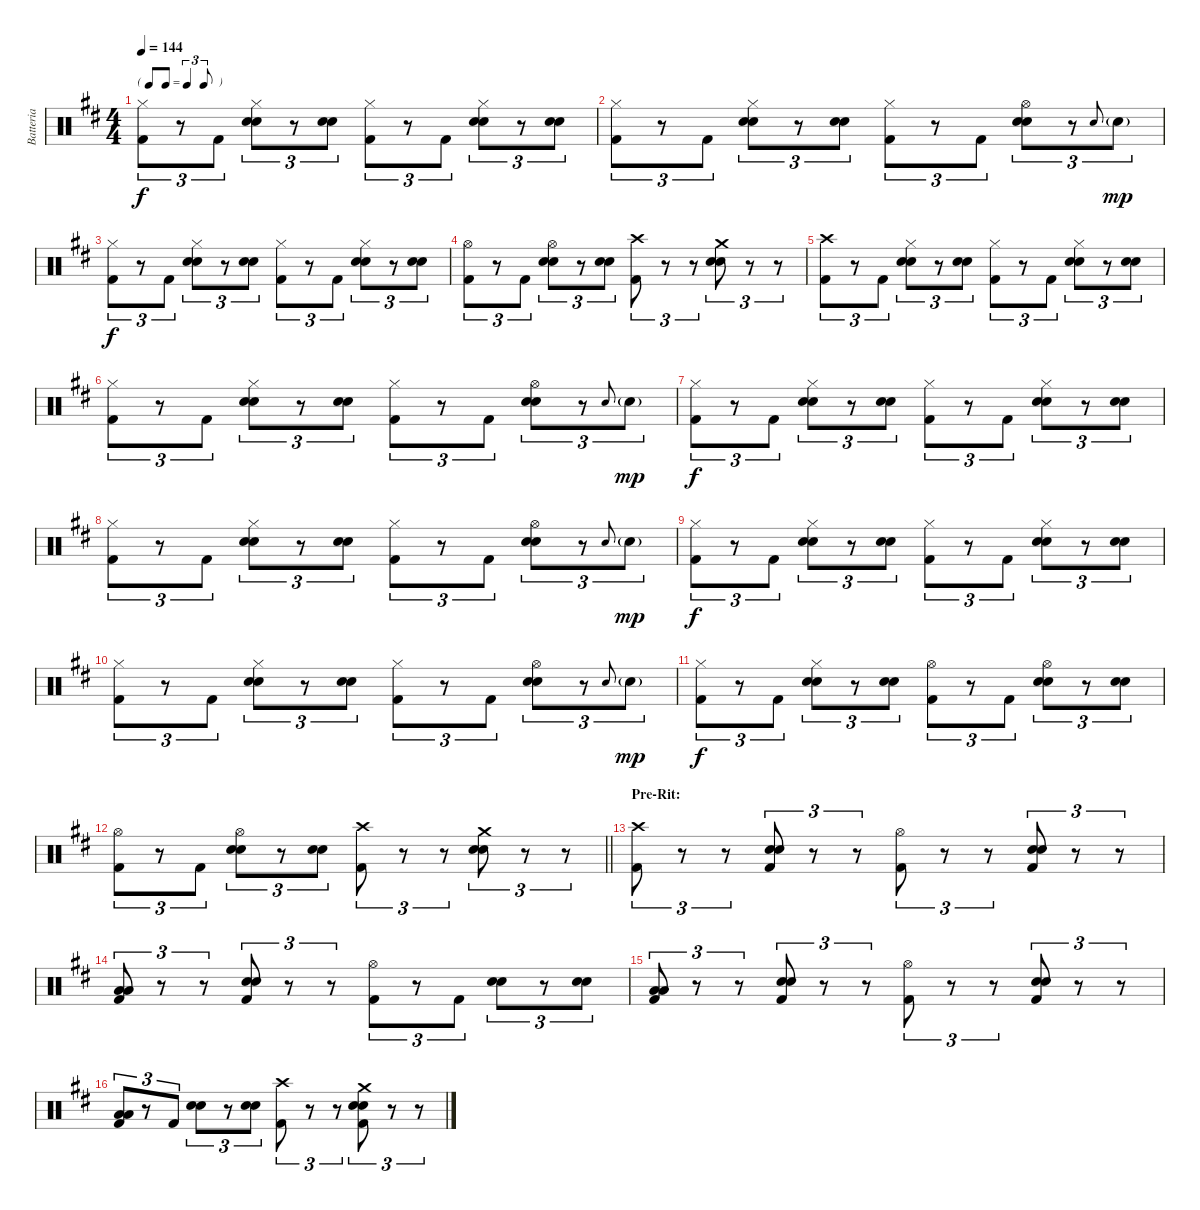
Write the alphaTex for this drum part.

\track ("Batteria" "Batteria") {instrument percussion}
\staff {score}
\articulation defaults
\ts (4 4)
\tf triplet8th
\tempo 144
\clef neutral
\ks d
("Kick (hit) 2" "Hi-Hat (closed)").8{tu (3 2) dy f} r.8{tu (3 2)} "Kick (hit) 2".8{tu (3 2)} ("Snare (hit) 2" "Snare (hit) 2" "Hi-Hat (closed)").8{tu (3 2)} r.8{tu (3 2)} ("Snare (hit) 2" "Snare (hit) 2").8{tu (3 2)} ("Kick (hit) 2" "Hi-Hat (closed)").8{tu (3 2)} r.8{tu (3 2)} "Kick (hit) 2".8{tu (3 2)} ("Snare (hit) 2" "Snare (hit) 2" "Hi-Hat (closed)").8{tu (3 2)} r.8{tu (3 2)} ("Snare (hit) 2" "Snare (hit) 2").8{tu (3 2)} |
("Kick (hit) 2" "Hi-Hat (closed)").8{tu (3 2)} r.8{tu (3 2)} "Kick (hit) 2".8{tu (3 2)} ("Snare (hit) 2" "Snare (hit) 2" "Hi-Hat (closed)").8{tu (3 2)} r.8{tu (3 2)} ("Snare (hit) 2" "Snare (hit) 2").8{tu (3 2)} ("Kick (hit) 2" "Hi-Hat (closed)").8{tu (3 2)} r.8{tu (3 2)} "Kick (hit) 2".8{tu (3 2)} ("Snare (hit) 2" "Snare (hit) 2" "Hi-Hat (open)").8{tu (3 2)} r.8{tu (3 2)} "Snare (hit) 2".8{gr onbeat} "Snare (hit) 2"{g}.8{tu (3 2) dy mp} |
("Kick (hit) 2" "Hi-Hat (closed)").8{tu (3 2) dy f} r.8{tu (3 2)} "Kick (hit) 2".8{tu (3 2)} ("Snare (hit) 2" "Snare (hit) 2" "Hi-Hat (closed)").8{tu (3 2)} r.8{tu (3 2)} ("Snare (hit) 2" "Snare (hit) 2").8{tu (3 2)} ("Kick (hit) 2" "Hi-Hat (closed)").8{tu (3 2)} r.8{tu (3 2)} "Kick (hit) 2".8{tu (3 2)} ("Snare (hit) 2" "Snare (hit) 2" "Hi-Hat (closed)").8{tu (3 2)} r.8{tu (3 2)} ("Snare (hit) 2" "Snare (hit) 2").8{tu (3 2)} |
("Kick (hit) 2" "Hi-Hat (open)").8{tu (3 2)} r.8{tu (3 2)} "Kick (hit) 2".8{tu (3 2)} ("Snare (hit) 2" "Snare (hit) 2" "Hi-Hat (open)").8{tu (3 2)} r.8{tu (3 2)} ("Snare (hit) 2" "Snare (hit) 2").8{tu (3 2)} ("Kick (hit) 2" "Crash high (hit)").8{tu (3 2)} r.8{tu (3 2)} r.8{tu (3 2)} ("Snare (hit) 2" "Snare (hit) 2" "Crash medium (hit)").8{tu (3 2)} r.8{tu (3 2)} r.8{tu (3 2)} |
("Kick (hit) 2" "Crash high (hit)").8{tu (3 2)} r.8{tu (3 2)} "Kick (hit) 2".8{tu (3 2)} ("Snare (hit) 2" "Snare (hit) 2" "Hi-Hat (closed)").8{tu (3 2)} r.8{tu (3 2)} ("Snare (hit) 2" "Snare (hit) 2").8{tu (3 2)} ("Kick (hit) 2" "Hi-Hat (closed)").8{tu (3 2)} r.8{tu (3 2)} "Kick (hit) 2".8{tu (3 2)} ("Snare (hit) 2" "Snare (hit) 2" "Hi-Hat (closed)").8{tu (3 2)} r.8{tu (3 2)} ("Snare (hit) 2" "Snare (hit) 2").8{tu (3 2)} |
("Kick (hit) 2" "Hi-Hat (closed)").8{tu (3 2)} r.8{tu (3 2)} "Kick (hit) 2".8{tu (3 2)} ("Snare (hit) 2" "Snare (hit) 2" "Hi-Hat (closed)").8{tu (3 2)} r.8{tu (3 2)} ("Snare (hit) 2" "Snare (hit) 2").8{tu (3 2)} ("Kick (hit) 2" "Hi-Hat (closed)").8{tu (3 2)} r.8{tu (3 2)} "Kick (hit) 2".8{tu (3 2)} ("Snare (hit) 2" "Snare (hit) 2" "Hi-Hat (open)").8{tu (3 2)} r.8{tu (3 2)} "Snare (hit) 2".8{gr onbeat} "Snare (hit) 2"{g}.8{tu (3 2) dy mp} |
("Kick (hit) 2" "Hi-Hat (closed)").8{tu (3 2) dy f} r.8{tu (3 2)} "Kick (hit) 2".8{tu (3 2)} ("Snare (hit) 2" "Snare (hit) 2" "Hi-Hat (closed)").8{tu (3 2)} r.8{tu (3 2)} ("Snare (hit) 2" "Snare (hit) 2").8{tu (3 2)} ("Kick (hit) 2" "Hi-Hat (closed)").8{tu (3 2)} r.8{tu (3 2)} "Kick (hit) 2".8{tu (3 2)} ("Snare (hit) 2" "Snare (hit) 2" "Hi-Hat (closed)").8{tu (3 2)} r.8{tu (3 2)} ("Snare (hit) 2" "Snare (hit) 2").8{tu (3 2)} |
("Kick (hit) 2" "Hi-Hat (closed)").8{tu (3 2)} r.8{tu (3 2)} "Kick (hit) 2".8{tu (3 2)} ("Snare (hit) 2" "Snare (hit) 2" "Hi-Hat (closed)").8{tu (3 2)} r.8{tu (3 2)} ("Snare (hit) 2" "Snare (hit) 2").8{tu (3 2)} ("Kick (hit) 2" "Hi-Hat (closed)").8{tu (3 2)} r.8{tu (3 2)} "Kick (hit) 2".8{tu (3 2)} ("Snare (hit) 2" "Snare (hit) 2" "Hi-Hat (open)").8{tu (3 2)} r.8{tu (3 2)} "Snare (hit) 2".8{gr onbeat} "Snare (hit) 2"{g}.8{tu (3 2) dy mp} |
("Kick (hit) 2" "Hi-Hat (closed)").8{tu (3 2) dy f} r.8{tu (3 2)} "Kick (hit) 2".8{tu (3 2)} ("Snare (hit) 2" "Snare (hit) 2" "Hi-Hat (closed)").8{tu (3 2)} r.8{tu (3 2)} ("Snare (hit) 2" "Snare (hit) 2").8{tu (3 2)} ("Kick (hit) 2" "Hi-Hat (closed)").8{tu (3 2)} r.8{tu (3 2)} "Kick (hit) 2".8{tu (3 2)} ("Snare (hit) 2" "Snare (hit) 2" "Hi-Hat (closed)").8{tu (3 2)} r.8{tu (3 2)} ("Snare (hit) 2" "Snare (hit) 2").8{tu (3 2)} |
("Kick (hit) 2" "Hi-Hat (closed)").8{tu (3 2)} r.8{tu (3 2)} "Kick (hit) 2".8{tu (3 2)} ("Snare (hit) 2" "Snare (hit) 2" "Hi-Hat (closed)").8{tu (3 2)} r.8{tu (3 2)} ("Snare (hit) 2" "Snare (hit) 2").8{tu (3 2)} ("Kick (hit) 2" "Hi-Hat (closed)").8{tu (3 2)} r.8{tu (3 2)} "Kick (hit) 2".8{tu (3 2)} ("Snare (hit) 2" "Snare (hit) 2" "Hi-Hat (open)").8{tu (3 2)} r.8{tu (3 2)} "Snare (hit) 2".8{gr onbeat} "Snare (hit) 2"{g}.8{tu (3 2) dy mp} |
("Kick (hit) 2" "Hi-Hat (closed)").8{tu (3 2) dy f} r.8{tu (3 2)} "Kick (hit) 2".8{tu (3 2)} ("Snare (hit) 2" "Snare (hit) 2" "Hi-Hat (closed)").8{tu (3 2)} r.8{tu (3 2)} ("Snare (hit) 2" "Snare (hit) 2").8{tu (3 2)} ("Kick (hit) 2" "Hi-Hat (open)").8{tu (3 2)} r.8{tu (3 2)} "Kick (hit) 2".8{tu (3 2)} ("Snare (hit) 2" "Snare (hit) 2" "Hi-Hat (open)").8{tu (3 2)} r.8{tu (3 2)} ("Snare (hit) 2" "Snare (hit) 2").8{tu (3 2)} |
\barLineRight lightlight
("Kick (hit) 2" "Hi-Hat (open)").8{tu (3 2)} r.8{tu (3 2)} "Kick (hit) 2".8{tu (3 2)} ("Snare (hit) 2" "Snare (hit) 2" "Hi-Hat (open)").8{tu (3 2)} r.8{tu (3 2)} ("Snare (hit) 2" "Snare (hit) 2").8{tu (3 2)} ("Kick (hit) 2" "Crash high (hit)").8{tu (3 2)} r.8{tu (3 2)} r.8{tu (3 2)} ("Snare (hit) 2" "Snare (hit) 2" "Crash medium (hit)").8{tu (3 2)} r.8{tu (3 2)} r.8{tu (3 2)} |
\section ("" "Pre-Rit:")
("Kick (hit) 2" "Crash high (hit)").8{tu (3 2)} r.8{tu (3 2)} r.8{tu (3 2)} ("Kick (hit) 2" "Snare (hit) 2" "Snare (hit) 2").8{tu (3 2)} r.8{tu (3 2)} r.8{tu (3 2)} ("Kick (hit) 2" "Hi-Hat (open)").8{tu (3 2)} r.8{tu (3 2)} r.8{tu (3 2)} ("Kick (hit) 2" "Snare (hit) 2" "Snare (hit) 2").8{tu (3 2)} r.8{tu (3 2)} r.8{tu (3 2)} |
("Kick (hit) 2" "Low Floor Tom (hit)" "Low Floor Tom (hit)").8{tu (3 2)} r.8{tu (3 2)} r.8{tu (3 2)} ("Kick (hit) 2" "Snare (hit) 2" "Snare (hit) 2").8{tu (3 2)} r.8{tu (3 2)} r.8{tu (3 2)} ("Kick (hit) 2" "Hi-Hat (open)").8{tu (3 2)} r.8{tu (3 2)} "Kick (hit) 2".8{tu (3 2)} ("Snare (hit) 2" "Snare (hit) 2").8{tu (3 2)} r.8{tu (3 2)} ("Snare (hit) 2" "Snare (hit) 2").8{tu (3 2)} |
("Kick (hit) 2" "Low Floor Tom (hit)" "Low Floor Tom (hit)").8{tu (3 2)} r.8{tu (3 2)} r.8{tu (3 2)} ("Kick (hit) 2" "Snare (hit) 2" "Snare (hit) 2").8{tu (3 2)} r.8{tu (3 2)} r.8{tu (3 2)} ("Kick (hit) 2" "Hi-Hat (open)").8{tu (3 2)} r.8{tu (3 2)} r.8{tu (3 2)} ("Kick (hit) 2" "Snare (hit) 2" "Snare (hit) 2").8{tu (3 2)} r.8{tu (3 2)} r.8{tu (3 2)} |
("Kick (hit) 2" "Low Floor Tom (hit)" "Low Floor Tom (hit)").8{tu (3 2)} r.8{tu (3 2)} "Kick (hit) 2".8{tu (3 2)} ("Snare (hit) 2" "Snare (hit) 2").8{tu (3 2)} r.8{tu (3 2)} ("Snare (hit) 2" "Snare (hit) 2").8{tu (3 2)} ("Kick (hit) 2" "Crash high (hit)").8{tu (3 2)} r.8{tu (3 2)} r.8{tu (3 2)} ("Kick (hit) 2" "Snare (hit) 2" "Snare (hit) 2" "Crash medium (hit)").8{tu (3 2)} r.8{tu (3 2)} r.8{tu (3 2)}
